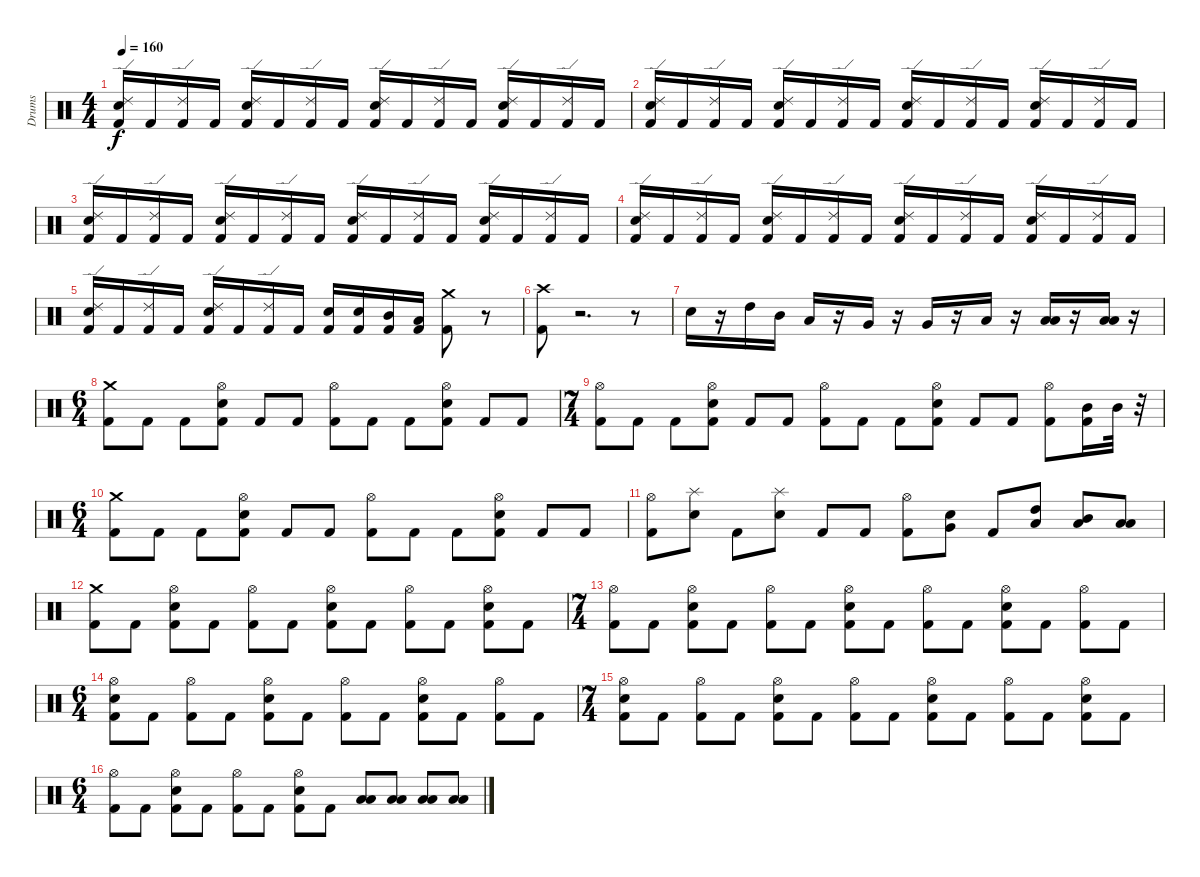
\track ("Drums" "Drums") {instrument percussion}
\staff {score}
\articulation defaults
\ts (4 4)
\tempo 160
\clef neutral
\ks c
("Ride (edge) 2" "Kick (hit) 2" "Electric Snare (hit)").16{dy f} "Kick (hit) 2".16 ("Ride (edge) 2" "Kick (hit) 2").16 "Kick (hit) 2".16 ("Ride (edge) 2" "Kick (hit) 2" "Electric Snare (hit)").16 "Kick (hit) 2".16 ("Ride (edge) 2" "Kick (hit) 2").16 "Kick (hit) 2".16 ("Ride (edge) 2" "Kick (hit) 2" "Electric Snare (hit)").16 "Kick (hit) 2".16 ("Ride (edge) 2" "Kick (hit) 2").16 "Kick (hit) 2".16 ("Ride (edge) 2" "Kick (hit) 2" "Electric Snare (hit)").16 "Kick (hit) 2".16 ("Ride (edge) 2" "Kick (hit) 2").16 "Kick (hit) 2".16 |
("Ride (edge) 2" "Kick (hit) 2" "Electric Snare (hit)").16 "Kick (hit) 2".16 ("Ride (edge) 2" "Kick (hit) 2").16 "Kick (hit) 2".16 ("Ride (edge) 2" "Kick (hit) 2" "Electric Snare (hit)").16 "Kick (hit) 2".16 ("Ride (edge) 2" "Kick (hit) 2").16 "Kick (hit) 2".16 ("Ride (edge) 2" "Kick (hit) 2" "Electric Snare (hit)").16 "Kick (hit) 2".16 ("Ride (edge) 2" "Kick (hit) 2").16 "Kick (hit) 2".16 ("Ride (edge) 2" "Kick (hit) 2" "Electric Snare (hit)").16 "Kick (hit) 2".16 ("Ride (edge) 2" "Kick (hit) 2").16 "Kick (hit) 2".16 |
("Ride (edge) 2" "Kick (hit) 2" "Electric Snare (hit)").16 "Kick (hit) 2".16 ("Ride (edge) 2" "Kick (hit) 2").16 "Kick (hit) 2".16 ("Ride (edge) 2" "Kick (hit) 2" "Electric Snare (hit)").16 "Kick (hit) 2".16 ("Ride (edge) 2" "Kick (hit) 2").16 "Kick (hit) 2".16 ("Ride (edge) 2" "Kick (hit) 2" "Electric Snare (hit)").16 "Kick (hit) 2".16 ("Ride (edge) 2" "Kick (hit) 2").16 "Kick (hit) 2".16 ("Ride (edge) 2" "Kick (hit) 2" "Electric Snare (hit)").16 "Kick (hit) 2".16 ("Ride (edge) 2" "Kick (hit) 2").16 "Kick (hit) 2".16 |
("Ride (edge) 2" "Kick (hit) 2" "Electric Snare (hit)").16 "Kick (hit) 2".16 ("Ride (edge) 2" "Kick (hit) 2").16 "Kick (hit) 2".16 ("Ride (edge) 2" "Kick (hit) 2" "Electric Snare (hit)").16 "Kick (hit) 2".16 ("Ride (edge) 2" "Kick (hit) 2").16 "Kick (hit) 2".16 ("Ride (edge) 2" "Kick (hit) 2" "Electric Snare (hit)").16 "Kick (hit) 2".16 ("Ride (edge) 2" "Kick (hit) 2").16 "Kick (hit) 2".16 ("Ride (edge) 2" "Kick (hit) 2" "Electric Snare (hit)").16 "Kick (hit) 2".16 ("Ride (edge) 2" "Kick (hit) 2").16 "Kick (hit) 2".16 |
("Ride (edge) 2" "Kick (hit) 2" "Electric Snare (hit)").16 "Kick (hit) 2".16 ("Ride (edge) 2" "Kick (hit) 2").16 "Kick (hit) 2".16 ("Ride (edge) 2" "Kick (hit) 2" "Electric Snare (hit)").16 "Kick (hit) 2".16 ("Ride (edge) 2" "Kick (hit) 2").16 "Kick (hit) 2".16 ("Kick (hit) 2" "Electric Snare (hit)").16 ("Electric Snare (hit)" "Kick (hit) 2").16 ("Mid Tom (hit)" "Kick (hit) 2").16 ("Low Tom (hit)" "Kick (hit) 2").16 ("Kick (hit) 2" "Crash medium (hit)").8 r.8 |
("Crash high (hit)" "Kick (hit) 2").8 r.2{d} r.8 |
"Electric Snare (hit)".16 r.16 "High Tom (hit)".16 "Mid Tom (hit)".16 "Low Tom (hit)".16 r.16 "Very Low Tom (hit)".16 r.16 "Very Low Tom (hit)".16 r.16 "Low Floor Tom (hit)".16 r.16 ("Low Tom (hit)" "Low Floor Tom (hit)").16 r.16 ("Low Floor Tom (hit)" "Low Tom (hit)").16 r.16 |
\ts (6 4)
("Crash medium (hit)" "Kick (hit) 2").8 "Kick (hit) 2".8 "Kick (hit) 2".8 ("Hi-Hat (open)" "Electric Snare (hit)" "Kick (hit) 2").8 "Kick (hit) 2".8 "Kick (hit) 2".8 ("Hi-Hat (open)" "Kick (hit) 2").8 "Kick (hit) 2".8 "Kick (hit) 2".8 ("Hi-Hat (open)" "Electric Snare (hit)" "Kick (hit) 2").8 "Kick (hit) 2".8 "Kick (hit) 2".8 |
\ts (7 4)
("Hi-Hat (open)" "Kick (hit) 2").8 "Kick (hit) 2".8 "Kick (hit) 2".8 ("Hi-Hat (open)" "Electric Snare (hit)" "Kick (hit) 2").8 "Kick (hit) 2".8 "Kick (hit) 2".8 ("Hi-Hat (open)" "Kick (hit) 2").8 "Kick (hit) 2".8 "Kick (hit) 2".8 ("Hi-Hat (open)" "Electric Snare (hit)" "Kick (hit) 2").8 "Kick (hit) 2".8 "Kick (hit) 2".8 ("Hi-Hat (open)" "Kick (hit) 2").8 ("Mid Tom (hit)" "Kick (hit) 2").16 "Mid Tom (hit)".32 r.32 |
\ts (6 4)
("Crash medium (hit)" "Kick (hit) 2").8 "Kick (hit) 2".8 "Kick (hit) 2".8 ("Hi-Hat (open)" "Electric Snare (hit)" "Kick (hit) 2").8 "Kick (hit) 2".8 "Kick (hit) 2".8 ("Hi-Hat (open)" "Kick (hit) 2").8 "Kick (hit) 2".8 "Kick (hit) 2".8 ("Hi-Hat (open)" "Electric Snare (hit)" "Kick (hit) 2").8 "Kick (hit) 2".8 "Kick (hit) 2".8 |
("Hi-Hat (open)" "Kick (hit) 2").8 ("Splash (hit)" "Electric Snare (hit)").8 "Kick (hit) 2".8 ("Splash (hit)" "Electric Snare (hit)").8 "Kick (hit) 2".8 "Kick (hit) 2".8 ("Hi-Hat (open)" "Kick (hit) 2").8 ("Very Low Tom (hit)" "Electric Snare (hit)").8 "Kick (hit) 2".8 ("High Tom (hit)" "Low Floor Tom (hit)").8 ("Mid Tom (hit)" "Low Floor Tom (hit)").8 ("Low Tom (hit)" "Low Floor Tom (hit)").8 |
("Crash medium (hit)" "Kick (hit) 2").8 "Kick (hit) 2".8 ("Hi-Hat (open)" "Electric Snare (hit)" "Kick (hit) 2").8 "Kick (hit) 2".8 ("Hi-Hat (open)" "Kick (hit) 2").8 "Kick (hit) 2".8 ("Hi-Hat (open)" "Electric Snare (hit)" "Kick (hit) 2").8 "Kick (hit) 2".8 ("Hi-Hat (open)" "Kick (hit) 2").8 "Kick (hit) 2".8 ("Hi-Hat (open)" "Electric Snare (hit)" "Kick (hit) 2").8 "Kick (hit) 2".8 |
\ts (7 4)
("Hi-Hat (open)" "Kick (hit) 2").8 "Kick (hit) 2".8 ("Hi-Hat (open)" "Electric Snare (hit)" "Kick (hit) 2").8 "Kick (hit) 2".8 ("Hi-Hat (open)" "Kick (hit) 2").8 "Kick (hit) 2".8 ("Hi-Hat (open)" "Electric Snare (hit)" "Kick (hit) 2").8 "Kick (hit) 2".8 ("Hi-Hat (open)" "Kick (hit) 2").8 "Kick (hit) 2".8 ("Hi-Hat (open)" "Electric Snare (hit)" "Kick (hit) 2").8 "Kick (hit) 2".8 ("Hi-Hat (open)" "Kick (hit) 2").8 "Kick (hit) 2".8 |
\ts (6 4)
("Hi-Hat (open)" "Electric Snare (hit)" "Kick (hit) 2").8 "Kick (hit) 2".8 ("Hi-Hat (open)" "Kick (hit) 2").8 "Kick (hit) 2".8 ("Hi-Hat (open)" "Electric Snare (hit)" "Kick (hit) 2").8 "Kick (hit) 2".8 ("Hi-Hat (open)" "Kick (hit) 2").8 "Kick (hit) 2".8 ("Electric Snare (hit)" "Hi-Hat (open)" "Kick (hit) 2").8 "Kick (hit) 2".8 ("Hi-Hat (open)" "Kick (hit) 2").8 "Kick (hit) 2".8 |
\ts (7 4)
("Electric Snare (hit)" "Hi-Hat (open)" "Kick (hit) 2").8 "Kick (hit) 2".8 ("Hi-Hat (open)" "Kick (hit) 2").8 "Kick (hit) 2".8 ("Electric Snare (hit)" "Hi-Hat (open)" "Kick (hit) 2").8 "Kick (hit) 2".8 ("Hi-Hat (open)" "Kick (hit) 2").8 "Kick (hit) 2".8 ("Electric Snare (hit)" "Hi-Hat (open)" "Kick (hit) 2").8 "Kick (hit) 2".8 ("Hi-Hat (open)" "Kick (hit) 2").8 "Kick (hit) 2".8 ("Electric Snare (hit)" "Hi-Hat (open)" "Kick (hit) 2").8 "Kick (hit) 2".8 |
\ts (6 4)
("Hi-Hat (open)" "Kick (hit) 2").8 "Kick (hit) 2".8 ("Electric Snare (hit)" "Hi-Hat (open)" "Kick (hit) 2").8 "Kick (hit) 2".8 ("Hi-Hat (open)" "Kick (hit) 2").8 "Kick (hit) 2".8 ("Electric Snare (hit)" "Hi-Hat (open)" "Kick (hit) 2").8 "Kick (hit) 2".8 ("Low Tom (hit)" "Low Floor Tom (hit)").8 ("Low Tom (hit)" "Low Floor Tom (hit)").8 ("Low Tom (hit)" "Low Floor Tom (hit)").8 ("Low Tom (hit)" "Low Floor Tom (hit)").8
